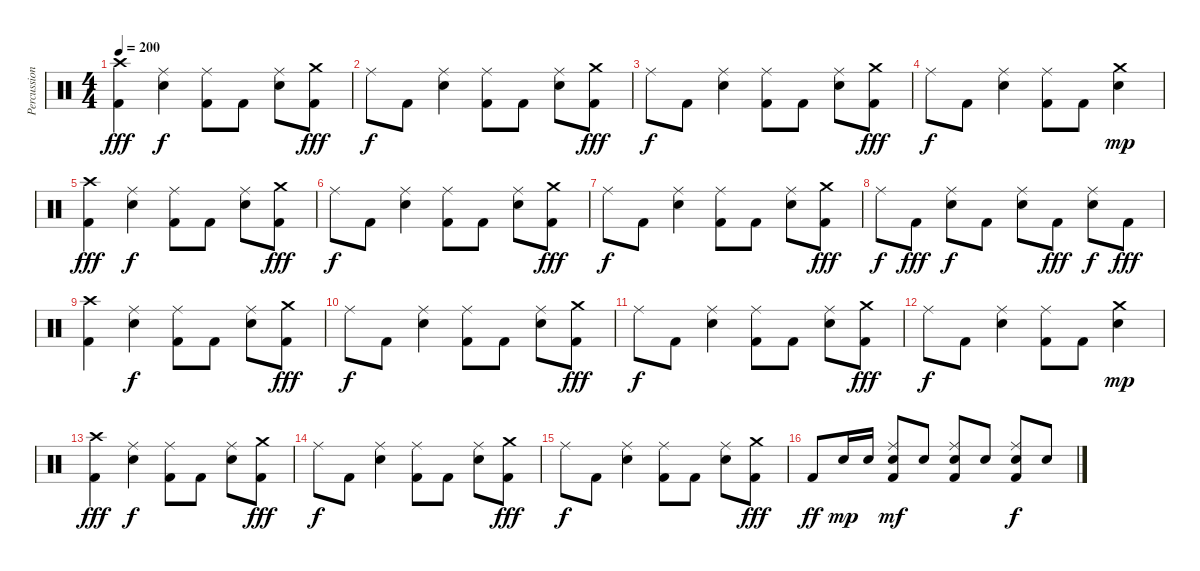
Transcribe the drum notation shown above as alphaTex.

\track ("Percussion" "Percussion") {instrument percussion}
\staff {score}
\articulation defaults
\ts (4 4)
\tempo 200
\clef neutral
\ks c
("Crash high (hit)" "Kick (hit) 2").4{dy fff} ("Ride (middle)" "Snare (hit) 2").4{dy f} ("Ride (middle)" "Kick (hit) 2").8 "Kick (hit) 2".8 ("Ride (middle)" "Snare (hit) 2").8 ("Crash medium (hit)" "Kick (hit) 2").8{dy fff} |
"Ride (middle)".8{dy f} "Kick (hit) 2".8 ("Ride (middle)" "Snare (hit) 2").4 ("Ride (middle)" "Kick (hit) 2").8 "Kick (hit) 2".8 ("Ride (middle)" "Snare (hit) 2").8 ("Crash medium (hit)" "Kick (hit) 2").8{dy fff} |
"Ride (middle)".8{dy f} "Kick (hit) 2".8 ("Ride (middle)" "Snare (hit) 2").4 ("Ride (middle)" "Kick (hit) 2").8 "Kick (hit) 2".8 ("Ride (middle)" "Snare (hit) 2").8 ("Crash medium (hit)" "Kick (hit) 2").8{dy fff} |
"Ride (middle)".8{dy f} "Kick (hit) 2".8 ("Ride (middle)" "Snare (hit) 2").4 ("Ride (middle)" "Kick (hit) 2").8 "Kick (hit) 2".8 ("Crash medium (hit)" "Snare (hit) 2").4{dy mp} |
("Crash high (hit)" "Kick (hit) 2").4{dy fff} ("Ride (middle)" "Snare (hit) 2").4{dy f} ("Ride (middle)" "Kick (hit) 2").8 "Kick (hit) 2".8 ("Ride (middle)" "Snare (hit) 2").8 ("Crash medium (hit)" "Kick (hit) 2").8{dy fff} |
"Ride (middle)".8{dy f} "Kick (hit) 2".8 ("Ride (middle)" "Snare (hit) 2").4 ("Ride (middle)" "Kick (hit) 2").8 "Kick (hit) 2".8 ("Ride (middle)" "Snare (hit) 2").8 ("Crash medium (hit)" "Kick (hit) 2").8{dy fff} |
"Ride (middle)".8{dy f} "Kick (hit) 2".8 ("Ride (middle)" "Snare (hit) 2").4 ("Ride (middle)" "Kick (hit) 2").8 "Kick (hit) 2".8 ("Ride (middle)" "Snare (hit) 2").8 ("Crash medium (hit)" "Kick (hit) 2").8{dy fff} |
"Ride (middle)".8{dy f} "Kick (hit) 2".8{dy fff} ("Ride (middle)" "Snare (hit) 2").8{dy f} "Kick (hit) 2".8 ("Ride (middle)" "Snare (hit) 2").8 "Kick (hit) 2".8{dy fff} ("Ride (middle)" "Snare (hit) 2").8{dy f} "Kick (hit) 2".8{dy fff} |
("Crash high (hit)" "Kick (hit) 2").4 ("Ride (middle)" "Snare (hit) 2").4{dy f} ("Ride (middle)" "Kick (hit) 2").8 "Kick (hit) 2".8 ("Ride (middle)" "Snare (hit) 2").8 ("Crash medium (hit)" "Kick (hit) 2").8{dy fff} |
"Ride (middle)".8{dy f} "Kick (hit) 2".8 ("Ride (middle)" "Snare (hit) 2").4 ("Ride (middle)" "Kick (hit) 2").8 "Kick (hit) 2".8 ("Ride (middle)" "Snare (hit) 2").8 ("Crash medium (hit)" "Kick (hit) 2").8{dy fff} |
"Ride (middle)".8{dy f} "Kick (hit) 2".8 ("Ride (middle)" "Snare (hit) 2").4 ("Ride (middle)" "Kick (hit) 2").8 "Kick (hit) 2".8 ("Ride (middle)" "Snare (hit) 2").8 ("Crash medium (hit)" "Kick (hit) 2").8{dy fff} |
"Ride (middle)".8{dy f} "Kick (hit) 2".8 ("Ride (middle)" "Snare (hit) 2").4 ("Ride (middle)" "Kick (hit) 2").8 "Kick (hit) 2".8 ("Crash medium (hit)" "Snare (hit) 2").4{dy mp} |
("Crash high (hit)" "Kick (hit) 2").4{dy fff} ("Ride (middle)" "Snare (hit) 2").4{dy f} ("Ride (middle)" "Kick (hit) 2").8 "Kick (hit) 2".8 ("Ride (middle)" "Snare (hit) 2").8 ("Crash medium (hit)" "Kick (hit) 2").8{dy fff} |
"Ride (middle)".8{dy f} "Kick (hit) 2".8 ("Ride (middle)" "Snare (hit) 2").4 ("Ride (middle)" "Kick (hit) 2").8 "Kick (hit) 2".8 ("Ride (middle)" "Snare (hit) 2").8 ("Crash medium (hit)" "Kick (hit) 2").8{dy fff} |
"Ride (middle)".8{dy f} "Kick (hit) 2".8 ("Ride (middle)" "Snare (hit) 2").4 ("Ride (middle)" "Kick (hit) 2").8 "Kick (hit) 2".8 ("Ride (middle)" "Snare (hit) 2").8 ("Crash medium (hit)" "Kick (hit) 2").8{dy fff} |
"Kick (hit) 2".8{dy ff} "Snare (hit) 2".16{dy mp} "Snare (hit) 2".16 ("Ride (middle)" "Snare (hit) 2" "Kick (hit) 2").8{dy mf} "Snare (hit) 2".8 ("Ride (middle)" "Snare (hit) 2" "Kick (hit) 2").8 "Snare (hit) 2".8 ("Ride (middle)" "Snare (hit) 2" "Kick (hit) 2").8{dy f} "Snare (hit) 2".8
